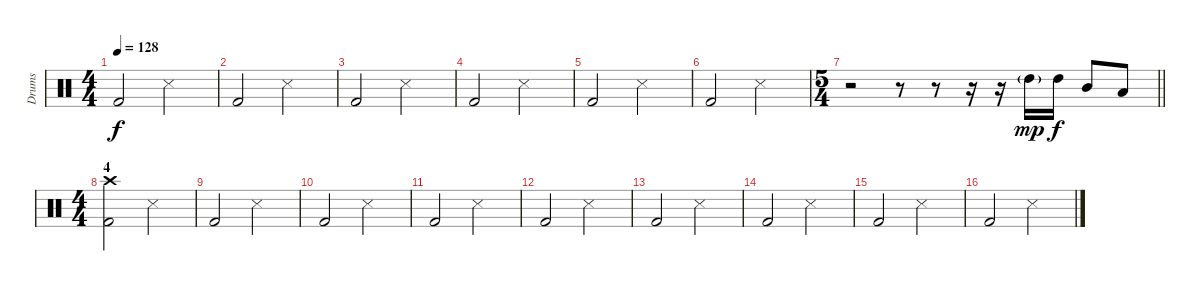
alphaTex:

\track ("Drums" "Drums") {instrument percussion}
\staff {score}
\articulation defaults
\ts (4 4)
\tempo 128
\clef neutral
\ks c "Kick (hit) 2".2{dy f} "Snare (side stick) 3".2
|
"Kick (hit) 2".2 "Snare (side stick) 3".2 |
"Kick (hit) 2".2 "Snare (side stick) 3".2 |
"Kick (hit) 2".2 "Snare (side stick) 3".2 |
"Kick (hit) 2".2 "Snare (side stick) 3".2 |
"Kick (hit) 2".2 "Snare (side stick) 3".2 |
\ts (5 4)
\barLineRight lightlight
r.2 r.8 r.8 r.16 r.16 "High Tom (hit)"{g}.16{dy mp} "High Tom (hit)".16{dy f} "Mid Tom (hit)".8 "Low Tom (hit)".8 |
\ts (4 4)
\section ("" "4")
("Crash high (hit)" "Kick (hit) 2").2 "Snare (side stick) 3".2 |
"Kick (hit) 2".2 "Snare (side stick) 3".2 |
"Kick (hit) 2".2 "Snare (side stick) 3".2 |
"Kick (hit) 2".2 "Snare (side stick) 3".2 |
"Kick (hit) 2".2 "Snare (side stick) 3".2 |
"Kick (hit) 2".2 "Snare (side stick) 3".2 |
"Kick (hit) 2".2 "Snare (side stick) 3".2 |
"Kick (hit) 2".2 "Snare (side stick) 3".2 |
"Kick (hit) 2".2 "Snare (side stick) 3".2
